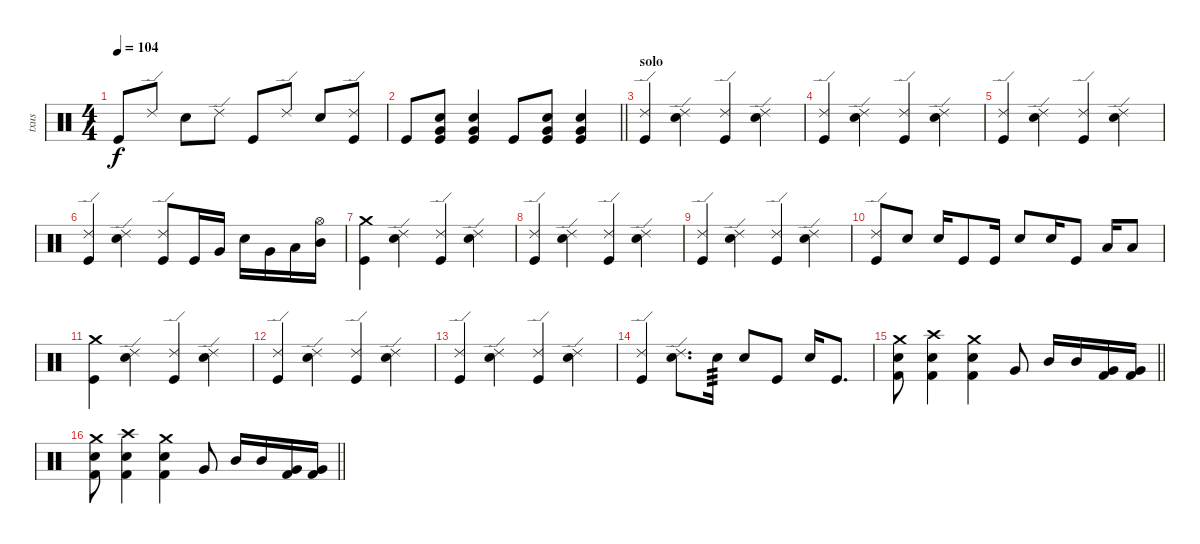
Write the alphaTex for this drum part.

\track ("txus" "txus") {instrument percussion}
\staff {score}
\articulation defaults
\ts (4 4)
\tempo 104
\clef neutral
\ks c "Kick (hit)".8{dy f} "Ride (edge) 2".8 "Electric Snare (hit)".8 "Ride (edge) 2".8 "Kick (hit)".8 "Ride (edge) 2".8 "Electric Snare (hit)".8
("Ride (edge) 2" "Kick (hit)").8 |
\barLineRight lightlight "Kick (hit)".8
("Electric Snare (hit)" "Very Low Tom (hit)" "Kick (hit)").8 ("Electric Snare (hit)" "Very Low Tom (hit)" "Kick (hit)").4 "Kick (hit)".8 ("Electric Snare (hit)" "Very Low Tom (hit)" "Kick (hit)").8 ("Electric Snare (hit)" "Very Low Tom (hit)" "Kick (hit)").4 |
\section ("" "solo")
("Ride (edge) 2" "Kick (hit)").4 ("Ride (edge) 2" "Electric Snare (hit)").4 ("Ride (edge) 2" "Kick (hit)").4 ("Ride (edge) 2" "Electric Snare (hit)").4 |
("Ride (edge) 2" "Kick (hit)").4 ("Ride (edge) 2" "Electric Snare (hit)").4 ("Ride (edge) 2" "Kick (hit)").4 ("Ride (edge) 2" "Electric Snare (hit)").4 |
("Ride (edge) 2" "Kick (hit)").4 ("Ride (edge) 2" "Electric Snare (hit)").4 ("Ride (edge) 2" "Kick (hit)").4 ("Ride (edge) 2" "Electric Snare (hit)").4 |
("Ride (edge) 2" "Kick (hit)").4 ("Ride (edge) 2" "Electric Snare (hit)").4 ("Ride (edge) 2" "Kick (hit)").8 "Kick (hit)".16 "Very Low Tom (hit)".16 "Electric Snare (hit)".16 "Very Low Tom (hit)".16 "Low Tom (hit)".16 ("Hi-Hat (open)" "Mid Tom (hit)").16 |
("Crash medium (hit)" "Kick (hit)").4 ("Ride (edge) 2" "Electric Snare (hit)").4 ("Ride (edge) 2" "Kick (hit)").4 ("Ride (edge) 2" "Electric Snare (hit)").4 |
("Ride (edge) 2" "Kick (hit)").4 ("Ride (edge) 2" "Electric Snare (hit)").4 ("Ride (edge) 2" "Kick (hit)").4 ("Ride (edge) 2" "Electric Snare (hit)").4 |
("Ride (edge) 2" "Kick (hit)").4 ("Ride (edge) 2" "Electric Snare (hit)").4 ("Ride (edge) 2" "Kick (hit)").4 ("Ride (edge) 2" "Electric Snare (hit)").4 |
("Ride (edge) 2" "Kick (hit)").8 "Electric Snare (hit)".8 "Electric Snare (hit)".16 "Kick (hit)".8 "Kick (hit)".16 "Electric Snare (hit)".8 "Electric Snare (hit)".16 "Kick (hit)".8 "Low Tom (hit)".16 "Low Tom (hit)".8 |
("Crash medium (hit)" "Kick (hit)").4 ("Ride (edge) 2" "Electric Snare (hit)").4 ("Ride (edge) 2" "Kick (hit)").4 ("Ride (edge) 2" "Electric Snare (hit)").4 |
("Ride (edge) 2" "Kick (hit)").4 ("Ride (edge) 2" "Electric Snare (hit)").4 ("Ride (edge) 2" "Kick (hit)").4 ("Ride (edge) 2" "Electric Snare (hit)").4 |
("Ride (edge) 2" "Kick (hit)").4 ("Ride (edge) 2" "Electric Snare (hit)").4 ("Ride (edge) 2" "Kick (hit)").4 ("Ride (edge) 2" "Electric Snare (hit)").4 |
("Ride (edge) 2" "Kick (hit)").4 ("Ride (edge) 2" "Electric Snare (hit)").8{d} "Electric Snare (hit)".16{tp 3} "Electric Snare (hit)".8 "Kick (hit)".8 "Electric Snare (hit)".16 "Kick (hit)".8{d} |
\barLineRight lightlight
("Crash medium (hit)" "Kick (hit) 2" "Snare (hit) 2").8 ("Crash high (hit)" "Kick (hit) 2" "Snare (hit) 2").4 ("Crash medium (hit)" "Kick (hit) 2" "Snare (hit) 2").4 "Very Low Tom (hit)".8 "Mid Tom (hit)".16 "Mid Tom (hit)".16 ("Kick (hit) 2" "Very Low Tom (hit)").16 ("Very Low Tom (hit)" "Kick (hit) 2").16 |
\barLineRight lightlight
("Crash medium (hit)" "Kick (hit) 2" "Snare (hit) 2").8 ("Crash high (hit)" "Kick (hit) 2" "Snare (hit) 2").4 ("Crash medium (hit)" "Kick (hit) 2" "Snare (hit) 2").4 "Very Low Tom (hit)".8 "Mid Tom (hit)".16 "Mid Tom (hit)".16 ("Kick (hit) 2" "Very Low Tom (hit)").16 ("Very Low Tom (hit)" "Kick (hit) 2").16
